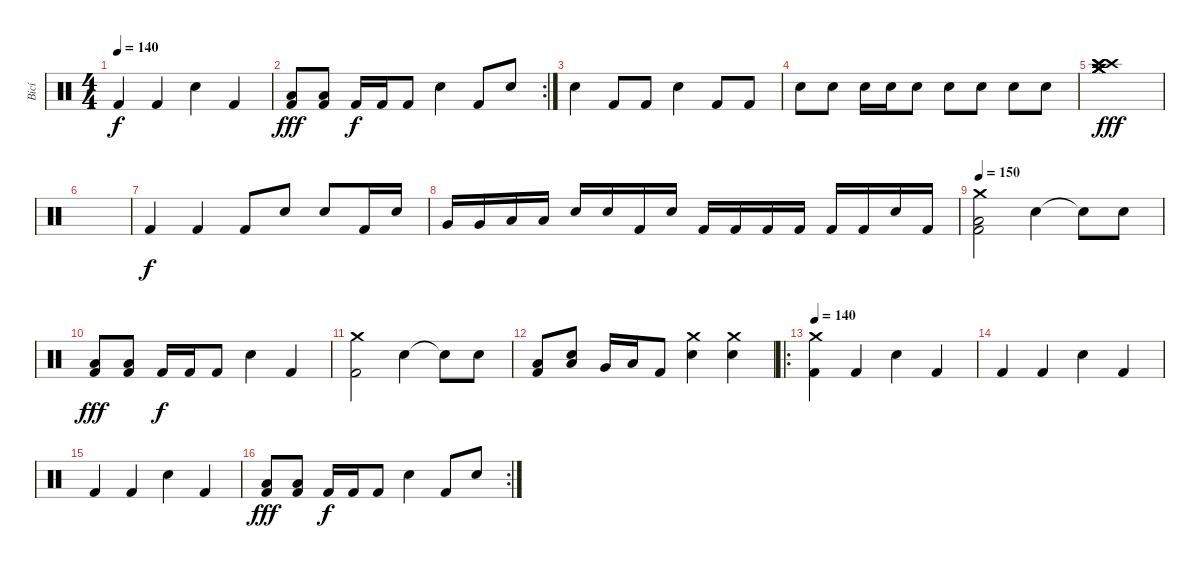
\track ("Bicí" "Bicí") {instrument percussion}
\staff {score}
\articulation defaults
\ts (4 4)
\tempo 140
\clef neutral
\ks c "Kick (hit) 2".4{dy f} "Kick (hit) 2".4 "Electric Snare (hit)".4 "Kick (hit) 2".4
|
\rc 2
("Kick (hit) 2" "Low Floor Tom (hit)").8{dy fff} ("Kick (hit) 2" "Low Floor Tom (hit)").8 "Kick (hit) 2".16{dy f} "Kick (hit) 2".16 "Kick (hit) 2".8 "Electric Snare (hit)".4 "Kick (hit) 2".8 "Electric Snare (hit)".8 |
"Electric Snare (hit)".4 "Kick (hit) 2".8 "Kick (hit) 2".8 "Electric Snare (hit)".4 "Kick (hit) 2".8 "Kick (hit) 2".8 |
"Electric Snare (hit)".8 "Electric Snare (hit)".8 "Electric Snare (hit)".16 "Electric Snare (hit)".16 "Electric Snare (hit)".8 "Electric Snare (hit)".8 "Electric Snare (hit)".8 "Electric Snare (hit)".8 "Electric Snare (hit)".8 |
("Crash high (hit)" "Crash high (hit)" "Crash medium (hit)" "Crash high (hit)" "Crash medium (hit)" "Crash medium (hit)").1{dy fff} |
|
"Kick (hit) 2".4{dy f} "Kick (hit) 2".4 "Kick (hit) 2".8 "Electric Snare (hit)".8 "Electric Snare (hit)".8 "Kick (hit) 2".16 "Electric Snare (hit)".16 |
"Very Low Tom (hit)".16 "Very Low Tom (hit)".16 "Low Floor Tom (hit)".16 "Low Floor Tom (hit)".16 "Electric Snare (hit)".16 "Electric Snare (hit)".16 "Kick (hit) 2".16 "Electric Snare (hit)".16 "Kick (hit) 2".16 "Kick (hit) 2".16 "Kick (hit) 2".16 "Kick (hit) 2".16 "Kick (hit) 2".16 "Kick (hit) 2".16 "Electric Snare (hit)".16 "Kick (hit) 2".16 |
\tempo 150
("Crash medium (hit)" "Kick (hit) 2" "Low Floor Tom (hit)").2 "Electric Snare (hit)".4 "Snare (hit)"{t}.8 "Electric Snare (hit)".8 |
("Kick (hit) 2" "Low Floor Tom (hit)").8{dy fff} ("Kick (hit) 2" "Low Floor Tom (hit)").8 "Kick (hit) 2".16{dy f} "Kick (hit) 2".16 "Kick (hit) 2".8 "Electric Snare (hit)".4 "Kick (hit) 2".4 |
("Crash medium (hit)" "Kick (hit) 2").2 "Electric Snare (hit)".4 "Snare (hit)"{t}.8 "Electric Snare (hit)".8 |
("Low Floor Tom (hit)" "Kick (hit) 2").8 ("Low Floor Tom (hit)" "Electric Snare (hit)").8 "Very Low Tom (hit)".16 "Low Floor Tom (hit)".16 "Kick (hit) 2".8 ("Crash medium (hit)" "Electric Snare (hit)").4 ("Crash medium (hit)" "Electric Snare (hit)").4 |
\ro
\tempo 140
("Crash medium (hit)" "Kick (hit) 2").4 "Kick (hit) 2".4 "Electric Snare (hit)".4 "Kick (hit) 2".4 |
"Kick (hit) 2".4 "Kick (hit) 2".4 "Electric Snare (hit)".4 "Kick (hit) 2".4 |
"Kick (hit) 2".4 "Kick (hit) 2".4 "Electric Snare (hit)".4 "Kick (hit) 2".4 |
\rc 2
("Kick (hit) 2" "Low Floor Tom (hit)").8{dy fff} ("Kick (hit) 2" "Low Floor Tom (hit)").8 "Kick (hit) 2".16{dy f} "Kick (hit) 2".16 "Kick (hit) 2".8 "Electric Snare (hit)".4 "Kick (hit) 2".8 "Electric Snare (hit)".8
